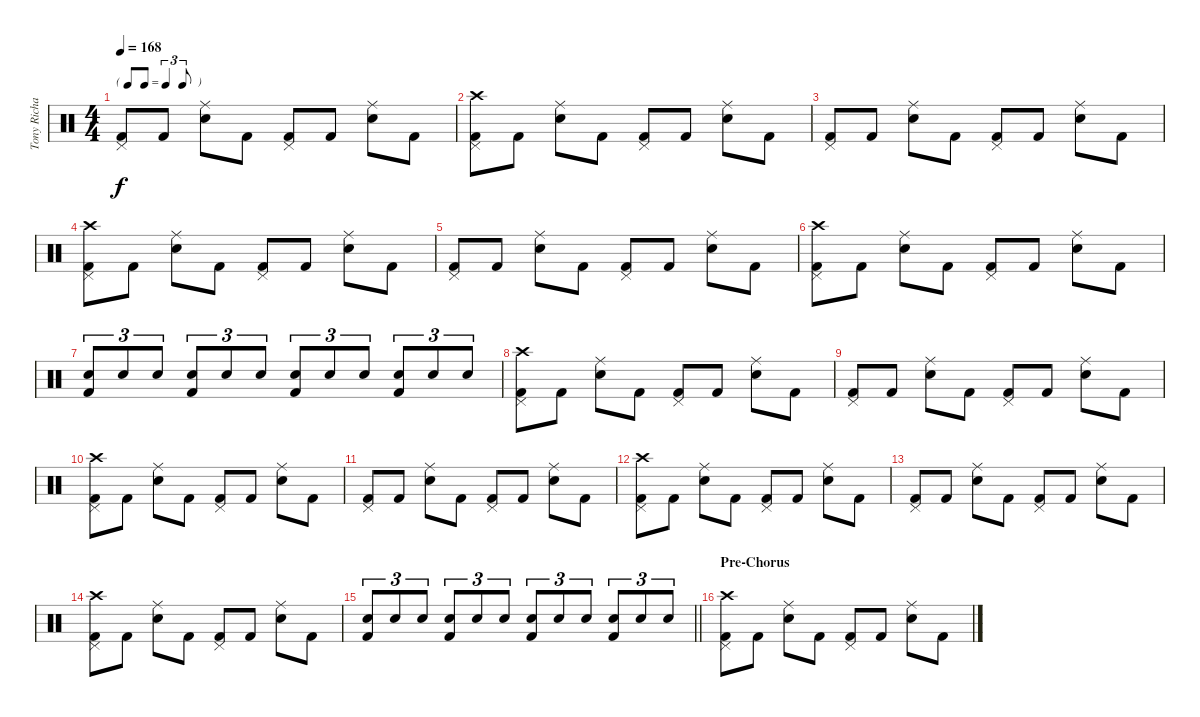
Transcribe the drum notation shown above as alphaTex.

\track ("Tony Richards (drums)" "Tony Richa") {instrument percussion}
\staff {score}
\articulation defaults
\ts (4 4)
\tf triplet8th
\tempo 168
\clef neutral
\ks c
("Pedal Hi-Hat (hit)" "Kick (hit) 2").8{dy f} "Kick (hit) 2".8 ("Ride (middle)" "Snare (hit) 2").8 "Kick (hit) 2".8 ("Pedal Hi-Hat (hit)" "Kick (hit) 2").8 "Kick (hit) 2".8 ("Ride (middle)" "Snare (hit) 2").8 "Kick (hit) 2".8 |
("Crash high (hit)" "Pedal Hi-Hat (hit)" "Kick (hit) 2").8 "Kick (hit) 2".8 ("Ride (middle)" "Snare (hit) 2").8 "Kick (hit) 2".8 ("Pedal Hi-Hat (hit)" "Kick (hit) 2").8 "Kick (hit) 2".8 ("Ride (middle)" "Snare (hit) 2").8 "Kick (hit) 2".8 |
("Pedal Hi-Hat (hit)" "Kick (hit) 2").8 "Kick (hit) 2".8 ("Ride (middle)" "Snare (hit) 2").8 "Kick (hit) 2".8 ("Pedal Hi-Hat (hit)" "Kick (hit) 2").8 "Kick (hit) 2".8 ("Ride (middle)" "Snare (hit) 2").8 "Kick (hit) 2".8 |
("Crash high (hit)" "Pedal Hi-Hat (hit)" "Kick (hit) 2").8 "Kick (hit) 2".8 ("Ride (middle)" "Snare (hit) 2").8 "Kick (hit) 2".8 ("Pedal Hi-Hat (hit)" "Kick (hit) 2").8 "Kick (hit) 2".8 ("Ride (middle)" "Snare (hit) 2").8 "Kick (hit) 2".8 |
("Pedal Hi-Hat (hit)" "Kick (hit) 2").8 "Kick (hit) 2".8 ("Ride (middle)" "Snare (hit) 2").8 "Kick (hit) 2".8 ("Pedal Hi-Hat (hit)" "Kick (hit) 2").8 "Kick (hit) 2".8 ("Ride (middle)" "Snare (hit) 2").8 "Kick (hit) 2".8 |
("Crash high (hit)" "Pedal Hi-Hat (hit)" "Kick (hit) 2").8 "Kick (hit) 2".8 ("Ride (middle)" "Snare (hit) 2").8 "Kick (hit) 2".8 ("Pedal Hi-Hat (hit)" "Kick (hit) 2").8 "Kick (hit) 2".8 ("Ride (middle)" "Snare (hit) 2").8 "Kick (hit) 2".8 |
("Snare (hit) 2" "Kick (hit) 2").8{tu (3 2)} "Snare (hit) 2".8{tu (3 2)} "Snare (hit) 2".8{tu (3 2)} ("Snare (hit) 2" "Kick (hit) 2").8{tu (3 2)} "Snare (hit) 2".8{tu (3 2)} "Snare (hit) 2".8{tu (3 2)} ("Snare (hit) 2" "Kick (hit) 2").8{tu (3 2)} "Snare (hit) 2".8{tu (3 2)} "Snare (hit) 2".8{tu (3 2)} ("Snare (hit) 2" "Kick (hit) 2").8{tu (3 2)} "Snare (hit) 2".8{tu (3 2)} "Snare (hit) 2".8{tu (3 2)} |
("Crash high (hit)" "Pedal Hi-Hat (hit)" "Kick (hit) 2").8 "Kick (hit) 2".8 ("Ride (middle)" "Snare (hit) 2").8 "Kick (hit) 2".8 ("Pedal Hi-Hat (hit)" "Kick (hit) 2").8 "Kick (hit) 2".8 ("Ride (middle)" "Snare (hit) 2").8 "Kick (hit) 2".8 |
("Pedal Hi-Hat (hit)" "Kick (hit) 2").8 "Kick (hit) 2".8 ("Ride (middle)" "Snare (hit) 2").8 "Kick (hit) 2".8 ("Pedal Hi-Hat (hit)" "Kick (hit) 2").8 "Kick (hit) 2".8 ("Ride (middle)" "Snare (hit) 2").8 "Kick (hit) 2".8 |
("Crash high (hit)" "Pedal Hi-Hat (hit)" "Kick (hit) 2").8 "Kick (hit) 2".8 ("Ride (middle)" "Snare (hit) 2").8 "Kick (hit) 2".8 ("Pedal Hi-Hat (hit)" "Kick (hit) 2").8 "Kick (hit) 2".8 ("Ride (middle)" "Snare (hit) 2").8 "Kick (hit) 2".8 |
("Pedal Hi-Hat (hit)" "Kick (hit) 2").8 "Kick (hit) 2".8 ("Ride (middle)" "Snare (hit) 2").8 "Kick (hit) 2".8 ("Pedal Hi-Hat (hit)" "Kick (hit) 2").8 "Kick (hit) 2".8 ("Ride (middle)" "Snare (hit) 2").8 "Kick (hit) 2".8 |
("Crash high (hit)" "Pedal Hi-Hat (hit)" "Kick (hit) 2").8 "Kick (hit) 2".8 ("Ride (middle)" "Snare (hit) 2").8 "Kick (hit) 2".8 ("Pedal Hi-Hat (hit)" "Kick (hit) 2").8 "Kick (hit) 2".8 ("Ride (middle)" "Snare (hit) 2").8 "Kick (hit) 2".8 |
("Pedal Hi-Hat (hit)" "Kick (hit) 2").8 "Kick (hit) 2".8 ("Ride (middle)" "Snare (hit) 2").8 "Kick (hit) 2".8 ("Pedal Hi-Hat (hit)" "Kick (hit) 2").8 "Kick (hit) 2".8 ("Ride (middle)" "Snare (hit) 2").8 "Kick (hit) 2".8 |
("Crash high (hit)" "Pedal Hi-Hat (hit)" "Kick (hit) 2").8 "Kick (hit) 2".8 ("Ride (middle)" "Snare (hit) 2").8 "Kick (hit) 2".8 ("Pedal Hi-Hat (hit)" "Kick (hit) 2").8 "Kick (hit) 2".8 ("Ride (middle)" "Snare (hit) 2").8 "Kick (hit) 2".8 |
\barLineRight lightlight
("Snare (hit) 2" "Kick (hit) 2").8{tu (3 2)} "Snare (hit) 2".8{tu (3 2)} "Snare (hit) 2".8{tu (3 2)} ("Snare (hit) 2" "Kick (hit) 2").8{tu (3 2)} "Snare (hit) 2".8{tu (3 2)} "Snare (hit) 2".8{tu (3 2)} ("Snare (hit) 2" "Kick (hit) 2").8{tu (3 2)} "Snare (hit) 2".8{tu (3 2)} "Snare (hit) 2".8{tu (3 2)} ("Snare (hit) 2" "Kick (hit) 2").8{tu (3 2)} "Snare (hit) 2".8{tu (3 2)} "Snare (hit) 2".8{tu (3 2)} |
\section ("" "Pre-Chorus")
("Crash high (hit)" "Pedal Hi-Hat (hit)" "Kick (hit) 2").8 "Kick (hit) 2".8 ("Ride (middle)" "Snare (hit) 2").8 "Kick (hit) 2".8 ("Pedal Hi-Hat (hit)" "Kick (hit) 2").8 "Kick (hit) 2".8 ("Ride (middle)" "Snare (hit) 2").8 "Kick (hit) 2".8
